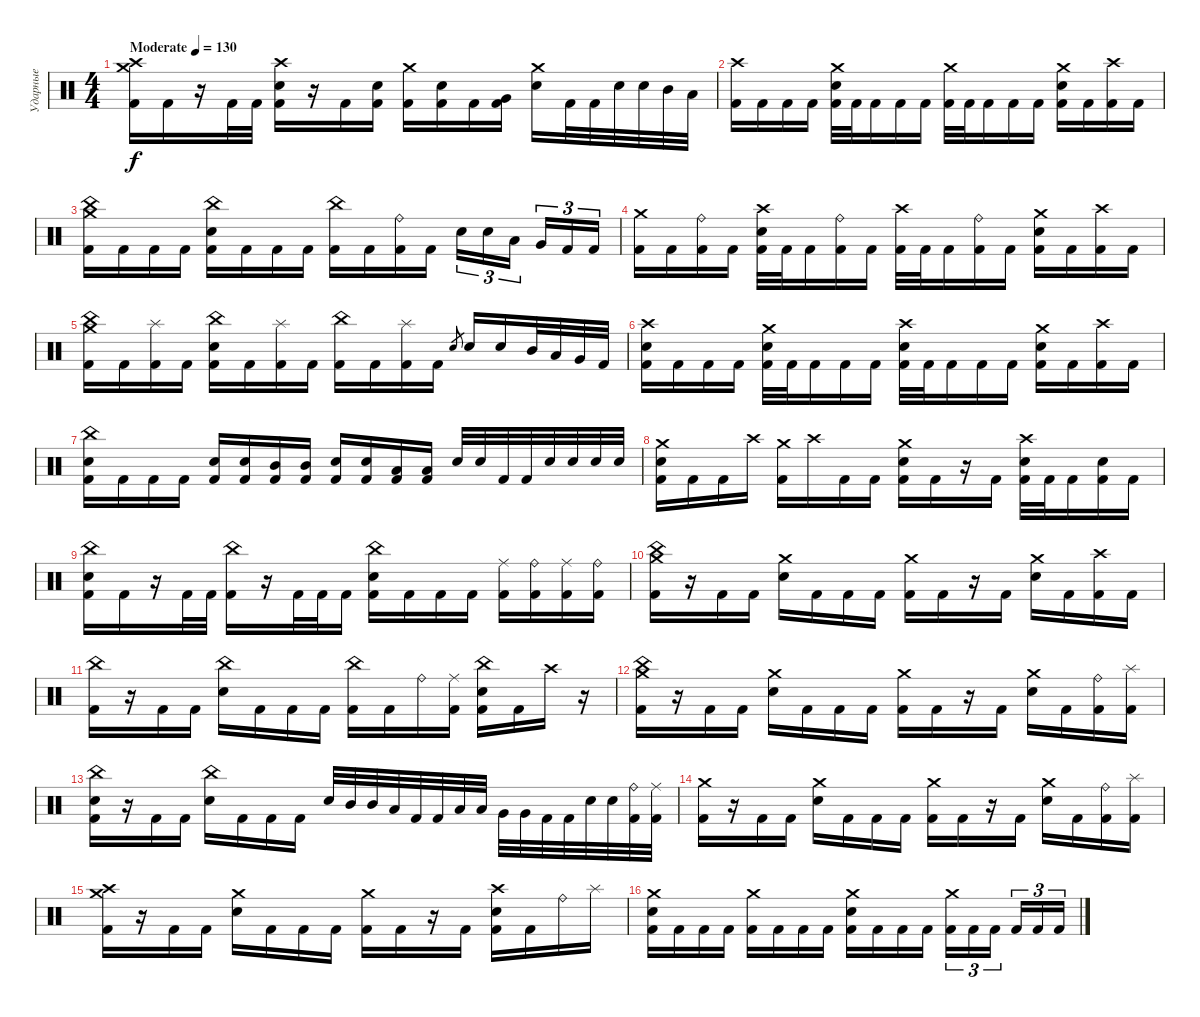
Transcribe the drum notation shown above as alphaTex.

\track ("Ударные" "Ударные") {instrument percussion}
\staff {score}
\articulation defaults
\ts (4 4)
\tempo (130 "Moderate")
\clef neutral
\ks c
("Crash medium (hit)" "Crash high (hit)" "Kick (hit) 2").16{dy f} "Kick (hit) 2".16 r.16 "Kick (hit) 2".32 "Kick (hit) 2".32 ("Crash high (hit)" "Electric Snare (hit)" "Kick (hit) 2").16 r.16 "Kick (hit) 2".16 ("Electric Snare (hit)" "Kick (hit) 2").16 ("Crash medium (hit)" "Kick (hit) 2").16 ("Electric Snare (hit)" "Kick (hit) 2").16 "Kick (hit) 2".16 ("Very Low Tom (hit)" "Kick (hit) 2").16 ("Crash medium (hit)" "Electric Snare (hit)").16 "Kick (hit) 2".32 "Kick (hit) 2".32 "Electric Snare (hit)".32 "Electric Snare (hit)".32 "Mid Tom (hit)".32 "Low Tom (hit)".32 |
("Crash high (hit)" "Kick (hit) 2").16 "Kick (hit) 2".16 "Kick (hit) 2".16 "Kick (hit) 2".16 ("Crash medium (hit)" "Electric Snare (hit)" "Kick (hit) 2").32 "Kick (hit) 2".32 "Kick (hit) 2".16 "Kick (hit) 2".16 "Kick (hit) 2".16 ("Crash medium (hit)" "Kick (hit) 2").32 "Kick (hit) 2".32 "Kick (hit) 2".16 "Kick (hit) 2".16 "Kick (hit) 2".16 ("Crash medium (hit)" "Electric Snare (hit)" "Kick (hit) 2").16 "Kick (hit) 2".16 ("Crash high (hit)" "Kick (hit) 2").16 "Kick (hit) 2".16 |
("China (hit)" "Crash medium (hit)" "Kick (hit) 2").16 "Kick (hit) 2".16 "Kick (hit) 2".16 "Kick (hit) 2".16 ("China (hit)" "Electric Snare (hit)" "Kick (hit) 2").16 "Kick (hit) 2".16 "Kick (hit) 2".16 "Kick (hit) 2".16 ("China (hit)" "Kick (hit) 2").16 "Kick (hit) 2".16 ("Ride (bell)" "Kick (hit) 2").16 "Kick (hit) 2".16 "Electric Snare (hit)".16{tu (3 2)} "Electric Snare (hit)".16{tu (3 2)} "Low Tom (hit)".16{tu (3 2) beam splitsecondary} "Very Low Tom (hit)".16{tu (3 2)} "Kick (hit) 2".16{tu (3 2)} "Kick (hit) 2".16{tu (3 2)} |
("Crash medium (hit)" "Kick (hit) 2").16 "Kick (hit) 2".16 ("Ride (bell)" "Kick (hit) 2").16 "Kick (hit) 2".16 ("Crash high (hit)" "Electric Snare (hit)" "Kick (hit) 2").32 "Kick (hit) 2".32 "Kick (hit) 2".16 ("Ride (bell)" "Kick (hit) 2").16 "Kick (hit) 2".16 ("Crash high (hit)" "Kick (hit) 2").32 "Kick (hit) 2".32 "Kick (hit) 2".16 ("Ride (bell)" "Kick (hit) 2").16 "Kick (hit) 2".16 ("Crash medium (hit)" "Electric Snare (hit)" "Kick (hit) 2").16 "Kick (hit) 2".16 ("Crash high (hit)" "Kick (hit) 2").16 "Kick (hit) 2".16 |
("China (hit)" "Crash medium (hit)" "Kick (hit) 2").16 "Kick (hit) 2".16 ("Splash (hit)" "Kick (hit) 2").16 "Kick (hit) 2".16 ("China (hit)" "Electric Snare (hit)" "Kick (hit) 2").16 "Kick (hit) 2".16 ("Splash (hit)" "Kick (hit) 2").16 "Kick (hit) 2".16 ("China (hit)" "Kick (hit) 2").16 "Kick (hit) 2".16 ("Splash (hit)" "Kick (hit) 2").16 "Kick (hit) 2".16 "Electric Snare (hit)".8{gr} "Electric Snare (hit)".16 "Electric Snare (hit)".16 "Mid Tom (hit)".32 "Low Tom (hit)".32 "Very Low Tom (hit)".32 "Kick (hit) 2".32 |
("Crash high (hit)" "Electric Snare (hit)" "Kick (hit) 2").16 "Kick (hit) 2".16 "Kick (hit) 2".16 "Kick (hit) 2".16 ("Crash medium (hit)" "Electric Snare (hit)" "Kick (hit) 2").32 "Kick (hit) 2".32 "Kick (hit) 2".16 "Kick (hit) 2".16 "Kick (hit) 2".16 ("Crash high (hit)" "Electric Snare (hit)" "Kick (hit) 2").32 "Kick (hit) 2".32 "Kick (hit) 2".16 "Kick (hit) 2".16 "Kick (hit) 2".16 ("Crash medium (hit)" "Electric Snare (hit)" "Kick (hit) 2").16 "Kick (hit) 2".16 ("Crash high (hit)" "Kick (hit) 2").16 "Kick (hit) 2".16 |
("China (hit)" "Electric Snare (hit)" "Kick (hit) 2").16 "Kick (hit) 2".16 "Kick (hit) 2".16 "Kick (hit) 2".16 ("Electric Snare (hit)" "Kick (hit) 2").16 ("Electric Snare (hit)" "Kick (hit) 2").16 ("Mid Tom (hit)" "Kick (hit) 2").16 ("Mid Tom (hit)" "Kick (hit) 2").16 ("Electric Snare (hit)" "Kick (hit) 2").16 ("Electric Snare (hit)" "Kick (hit) 2").16 ("Low Tom (hit)" "Kick (hit) 2").16 ("Low Tom (hit)" "Kick (hit) 2").16 "Electric Snare (hit)".32 "Electric Snare (hit)".32 "Kick (hit) 2".32 "Kick (hit) 2".32 "Electric Snare (hit)".32 "Electric Snare (hit)".32 "Electric Snare (hit)".32 "Electric Snare (hit)".32 |
("Crash medium (hit)" "Electric Snare (hit)" "Kick (hit) 2").16 "Kick (hit) 2".16 "Kick (hit) 2".16 "Crash high (hit)".16 ("Crash medium (hit)" "Kick (hit) 2").16 "Crash high (hit)".16 "Kick (hit) 2".16 "Kick (hit) 2".16 ("Crash medium (hit)" "Electric Snare (hit)" "Kick (hit) 2").16 "Kick (hit) 2".16 r.16 "Kick (hit) 2".16 ("Crash high (hit)" "Electric Snare (hit)" "Kick (hit) 2").32 "Kick (hit) 2".32 "Kick (hit) 2".16 ("Electric Snare (hit)" "Kick (hit) 2").16 "Kick (hit) 2".16 |
("China (hit)" "Electric Snare (hit)" "Kick (hit) 2").16 "Kick (hit) 2".16 r.16 "Kick (hit) 2".32 "Kick (hit) 2".32 ("China (hit)" "Kick (hit) 2").16 r.16 "Kick (hit) 2".32 "Kick (hit) 2".32 "Kick (hit) 2".16 ("China (hit)" "Electric Snare (hit)" "Kick (hit) 2").16 "Kick (hit) 2".16 "Kick (hit) 2".16 "Kick (hit) 2".16 ("Ride (middle)" "Kick (hit) 2").16 ("Ride (bell)" "Kick (hit) 2").16 ("Ride (middle)" "Kick (hit) 2").16 ("Ride (bell)" "Kick (hit) 2").16 |
("Crash medium (hit)" "China (hit)" "Kick (hit) 2").16 r.16 "Kick (hit) 2".16 "Kick (hit) 2".16 ("Crash medium (hit)" "Electric Snare (hit)").16 "Kick (hit) 2".16 "Kick (hit) 2".16 "Kick (hit) 2".16 ("Crash medium (hit)" "Kick (hit) 2").16 "Kick (hit) 2".16 r.16 "Kick (hit) 2".16 ("Crash medium (hit)" "Electric Snare (hit)").16 "Kick (hit) 2".16 ("Crash high (hit)" "Kick (hit) 2").16 "Kick (hit) 2".16 |
("China (hit)" "Kick (hit) 2").16 r.16 "Kick (hit) 2".16 "Kick (hit) 2".16 ("China (hit)" "Electric Snare (hit)").16 "Kick (hit) 2".16 "Kick (hit) 2".16 "Kick (hit) 2".16 ("China (hit)" "Kick (hit) 2").16 "Kick (hit) 2".16 "Ride (bell)".16 ("Ride (middle)" "Kick (hit) 2").16 ("China (hit)" "Electric Snare (hit)" "Kick (hit) 2").16 "Kick (hit) 2".16 "Crash high (hit)".16 r.16 |
("Crash medium (hit)" "China (hit)" "Kick (hit) 2").16 r.16 "Kick (hit) 2".16 "Kick (hit) 2".16 ("Crash medium (hit)" "Electric Snare (hit)").16 "Kick (hit) 2".16 "Kick (hit) 2".16 "Kick (hit) 2".16 ("Crash medium (hit)" "Kick (hit) 2").16 "Kick (hit) 2".16 r.16 "Kick (hit) 2".16 ("Crash medium (hit)" "Electric Snare (hit)").16 "Kick (hit) 2".16 ("Ride (bell)" "Kick (hit) 2").16 ("Splash (hit)" "Kick (hit) 2").16 |
("China (hit)" "Electric Snare (hit)" "Kick (hit) 2").16 r.16 "Kick (hit) 2".16 "Kick (hit) 2".16 ("China (hit)" "Electric Snare (hit)").16 "Kick (hit) 2".16 "Kick (hit) 2".16 "Kick (hit) 2".16 "Electric Snare (hit)".32 "Mid Tom (hit)".32 "Mid Tom (hit)".32 "Low Tom (hit)".32 "Kick (hit) 2".32 "Kick (hit) 2".32 "Low Tom (hit)".32 "Low Tom (hit)".32 "Very Low Tom (hit)".32 "Very Low Tom (hit)".32 "Kick (hit) 2".32 "Kick (hit) 2".32 "Electric Snare (hit)".32 "Electric Snare (hit)".32 ("Ride (bell)" "Kick (hit) 2").32 ("Ride (middle)" "Kick (hit) 2").32 |
("Crash medium (hit)" "Kick (hit) 2").16 r.16 "Kick (hit) 2".16 "Kick (hit) 2".16 ("Crash medium (hit)" "Electric Snare (hit)").16 "Kick (hit) 2".16 "Kick (hit) 2".16 "Kick (hit) 2".16 ("Crash medium (hit)" "Kick (hit) 2").16 "Kick (hit) 2".16 r.16 "Kick (hit) 2".16 ("Crash medium (hit)" "Electric Snare (hit)").16 "Kick (hit) 2".16 ("Ride (bell)" "Kick (hit) 2").16 ("Splash (hit)" "Kick (hit) 2").16 |
("Crash medium (hit)" "Crash high (hit)" "Kick (hit) 2").16 r.16 "Kick (hit) 2".16 "Kick (hit) 2".16 ("Crash medium (hit)" "Electric Snare (hit)").16 "Kick (hit) 2".16 "Kick (hit) 2".16 "Kick (hit) 2".16 ("Crash medium (hit)" "Kick (hit) 2").16 "Kick (hit) 2".16 r.16 "Kick (hit) 2".16 ("Crash high (hit)" "Electric Snare (hit)" "Kick (hit) 2").16 "Kick (hit) 2".16 "Ride (bell)".16 "Splash (hit)".16 |
("Crash medium (hit)" "Electric Snare (hit)" "Kick (hit) 2").16 "Kick (hit) 2".16 "Kick (hit) 2".16 "Kick (hit) 2".16 ("Crash medium (hit)" "Kick (hit) 2").16 "Kick (hit) 2".16 "Kick (hit) 2".16 "Kick (hit) 2".16 ("Crash medium (hit)" "Electric Snare (hit)" "Kick (hit) 2").16 "Kick (hit) 2".16 "Kick (hit) 2".16 "Kick (hit) 2".16 ("Crash medium (hit)" "Kick (hit) 2").16{tu (3 2)} "Kick (hit) 2".16{tu (3 2)} "Kick (hit) 2".16{tu (3 2) beam splitsecondary} "Kick (hit) 2".16{tu (3 2)} "Kick (hit) 2".16{tu (3 2)} "Kick (hit) 2".16{tu (3 2)}
